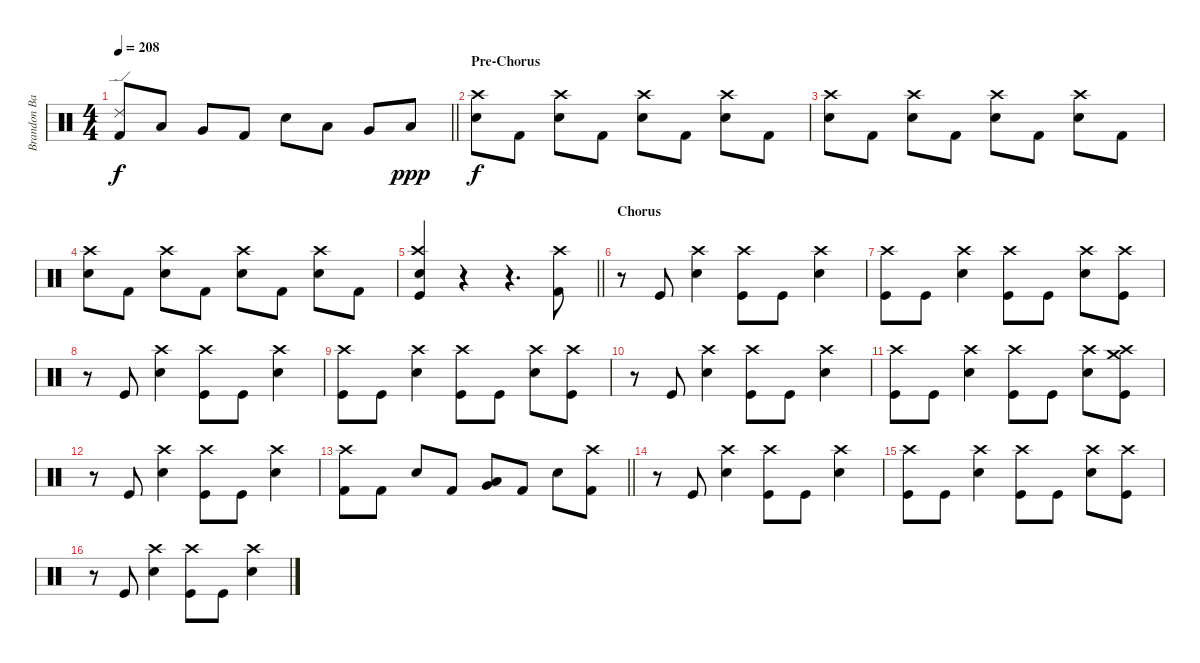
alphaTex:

\track ("Brandon Barnes - Drums" "Brandon Ba") {instrument percussion}
\staff {score}
\articulation defaults
\ts (4 4)
\tempo 208
\clef neutral
\barLineRight lightlight
\ks c
("Ride (edge) 2" "Kick (hit) 2").8{dy f} "Low Tom (hit)".8 "Very Low Tom (hit)".8 "Kick (hit) 2".8 "Snare (hit) 2".8 "Low Tom (hit)".8 "Very Low Tom (hit)".8 "Low Floor Tom (hit)".8{dy ppp} |
\section ("" "Pre-Chorus")
("Crash high (hit)" "Snare (hit) 2").8{dy f} "Kick (hit) 2".8 ("Crash high (hit)" "Snare (hit) 2").8 "Kick (hit) 2".8 ("Crash high (hit)" "Snare (hit) 2").8 "Kick (hit) 2".8 ("Crash high (hit)" "Snare (hit) 2").8 "Kick (hit) 2".8 |
("Crash high (hit)" "Snare (hit) 2").8 "Kick (hit) 2".8 ("Crash high (hit)" "Snare (hit) 2").8 "Kick (hit) 2".8 ("Crash high (hit)" "Snare (hit) 2").8 "Kick (hit) 2".8 ("Crash high (hit)" "Snare (hit) 2").8 "Kick (hit) 2".8 |
("Crash high (hit)" "Snare (hit) 2").8 "Kick (hit) 2".8 ("Crash high (hit)" "Snare (hit) 2").8 "Kick (hit) 2".8 ("Crash high (hit)" "Snare (hit) 2").8 "Kick (hit) 2".8 ("Crash high (hit)" "Snare (hit) 2").8 "Kick (hit) 2".8 |
\barLineRight lightlight
("Crash high (hit)" "Snare (hit) 2" "Kick (hit)").4 r.4 r.4{d} ("Crash high (hit)" "Kick (hit) 2").8 |
\section ("" "Chorus")
r.8 "Kick (hit)".8 ("Snare (hit) 2" "Crash high (hit)").4 ("Kick (hit)" "Crash high (hit)").8 "Kick (hit)".8 ("Snare (hit) 2" "Crash high (hit)").4 |
("Kick (hit)" "Crash high (hit)").8 "Kick (hit)".8 ("Snare (hit) 2" "Crash high (hit)").4 ("Kick (hit)" "Crash high (hit)").8 "Kick (hit)".8 ("Snare (hit) 2" "Crash high (hit)").8 ("Kick (hit)" "Crash high (hit)").8 |
r.8 "Kick (hit)".8 ("Snare (hit) 2" "Crash high (hit)").4 ("Kick (hit)" "Crash high (hit)").8 "Kick (hit)".8 ("Snare (hit) 2" "Crash high (hit)").4 |
("Kick (hit)" "Crash high (hit)").8 "Kick (hit)".8 ("Snare (hit) 2" "Crash high (hit)").4 ("Kick (hit)" "Crash high (hit)").8 "Kick (hit)".8 ("Snare (hit) 2" "Crash high (hit)").8 ("Kick (hit)" "Crash high (hit)").8 |
r.8 "Kick (hit)".8 ("Snare (hit) 2" "Crash high (hit)").4 ("Kick (hit)" "Crash high (hit)").8 "Kick (hit)".8 ("Snare (hit) 2" "Crash high (hit)").4 |
("Kick (hit)" "Crash high (hit)").8 "Kick (hit)".8 ("Snare (hit) 2" "Crash high (hit)").4 ("Kick (hit)" "Crash high (hit)").8 "Kick (hit)".8 ("Snare (hit) 2" "Crash high (hit)").8 ("Kick (hit)" "Crash high (hit)" "Crash medium (hit)").8 |
r.8 "Kick (hit)".8 ("Snare (hit) 2" "Crash high (hit)").4 ("Kick (hit)" "Crash high (hit)").8 "Kick (hit)".8 ("Snare (hit) 2" "Crash high (hit)").4 |
\barLineRight lightlight
("Kick (hit) 2" "Crash high (hit)").8 "Kick (hit) 2".8 "Snare (hit) 2".8 "Kick (hit) 2".8 ("Low Tom (hit)" "Very Low Tom (hit)").8 "Kick (hit) 2".8 "Snare (hit) 2".8 ("Kick (hit) 2" "Crash high (hit)").8 |
r.8 "Kick (hit)".8 ("Snare (hit) 2" "Crash high (hit)").4 ("Kick (hit)" "Crash high (hit)").8 "Kick (hit)".8 ("Snare (hit) 2" "Crash high (hit)").4 |
("Kick (hit)" "Crash high (hit)").8 "Kick (hit)".8 ("Snare (hit) 2" "Crash high (hit)").4 ("Kick (hit)" "Crash high (hit)").8 "Kick (hit)".8 ("Snare (hit) 2" "Crash high (hit)").8 ("Kick (hit)" "Crash high (hit)").8 |
r.8 "Kick (hit)".8 ("Snare (hit) 2" "Crash high (hit)").4 ("Kick (hit)" "Crash high (hit)").8 "Kick (hit)".8 ("Snare (hit) 2" "Crash high (hit)").4
